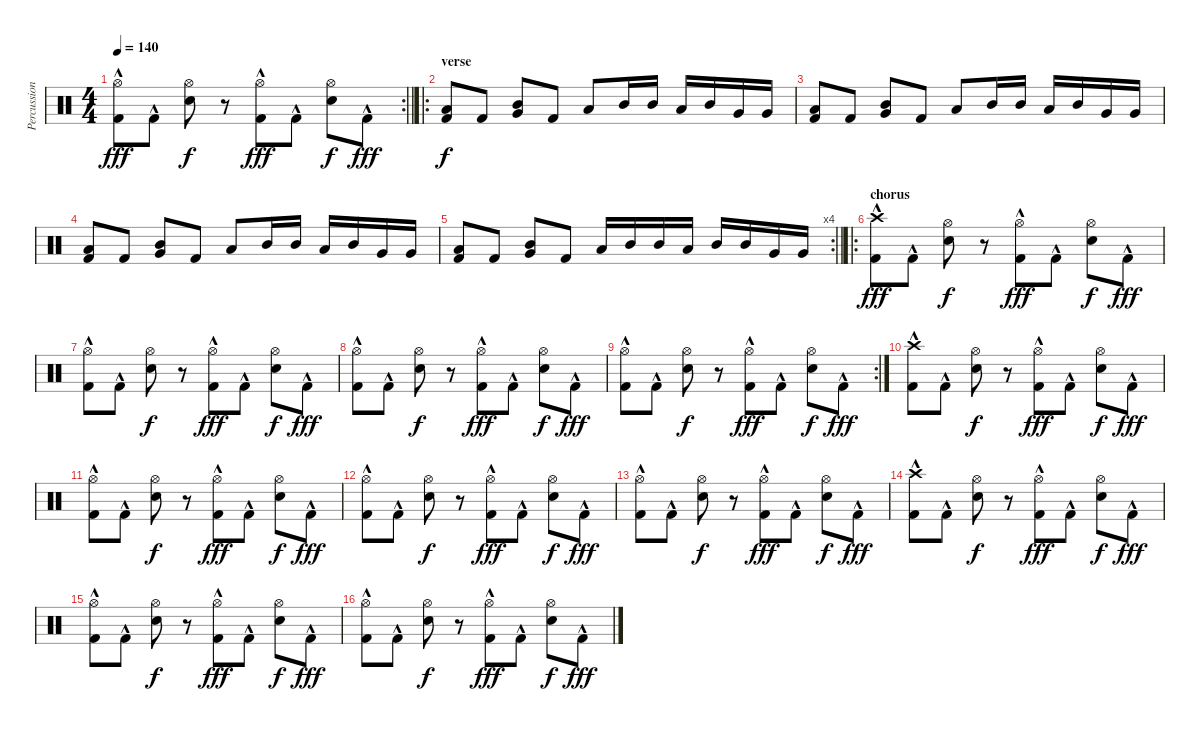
\track ("Percussion" "Percussion") {instrument percussion}
\staff {score}
\articulation defaults
\rc 2
\ts (4 4)
\tempo 140
\clef neutral
\barLineRight lightlight
\ks c
("Hi-Hat (open)" "Kick (hit) 2"{hac}).8{dy fff} "Kick (hit) 2"{hac}.8 ("Hi-Hat (open)" "Electric Snare (hit)").8{dy f} r.8 ("Hi-Hat (open)" "Kick (hit) 2"{hac}).8{dy fff} "Kick (hit) 2"{hac}.8 ("Hi-Hat (open)" "Electric Snare (hit)").8{dy f} "Kick (hit) 2"{hac}.8{dy fff} |
\ro
\section ("" "verse")
("Low Tom (hit)" "Kick (hit) 2").8{dy f} "Kick (hit) 2".8 ("Very Low Tom (hit)" "Mid Tom (hit)").8 "Kick (hit) 2".8 "Low Floor Tom (hit)".8 "Mid Tom (hit)".16 "Mid Tom (hit)".16 "Low Tom (hit)".16 "Mid Tom (hit)".16 "Very Low Tom (hit)".16 "Very Low Tom (hit)".16 |
("Low Tom (hit)" "Kick (hit) 2").8 "Kick (hit) 2".8 ("Very Low Tom (hit)" "Mid Tom (hit)").8 "Kick (hit) 2".8 "Low Floor Tom (hit)".8 "Mid Tom (hit)".16 "Mid Tom (hit)".16 "Low Tom (hit)".16 "Mid Tom (hit)".16 "Very Low Tom (hit)".16 "Very Low Tom (hit)".16 |
("Low Tom (hit)" "Kick (hit) 2").8 "Kick (hit) 2".8 ("Very Low Tom (hit)" "Mid Tom (hit)").8 "Kick (hit) 2".8 "Low Floor Tom (hit)".8 "Mid Tom (hit)".16 "Mid Tom (hit)".16 "Low Tom (hit)".16 "Mid Tom (hit)".16 "Very Low Tom (hit)".16 "Very Low Tom (hit)".16 |
\rc 4
\barLineRight lightlight
("Low Tom (hit)" "Kick (hit) 2").8 "Kick (hit) 2".8 ("Very Low Tom (hit)" "Mid Tom (hit)").8 "Kick (hit) 2".8 "Low Floor Tom (hit)".16 "Mid Tom (hit)".16 "Mid Tom (hit)".16 "Low Tom (hit)".16 "Mid Tom (hit)".16 "Mid Tom (hit)".16 "Very Low Tom (hit)".16 "Very Low Tom (hit)".16 |
\ro
\section ("" "chorus")
("Crash high (hit)" "Kick (hit) 2"{hac}).8{dy fff} "Kick (hit) 2"{hac}.8 ("Hi-Hat (open)" "Electric Snare (hit)").8{dy f} r.8 ("Hi-Hat (open)" "Kick (hit) 2"{hac}).8{dy fff} "Kick (hit) 2"{hac}.8 ("Hi-Hat (open)" "Electric Snare (hit)").8{dy f} "Kick (hit) 2"{hac}.8{dy fff} |
("Hi-Hat (open)" "Kick (hit) 2"{hac}).8 "Kick (hit) 2"{hac}.8 ("Hi-Hat (open)" "Electric Snare (hit)").8{dy f} r.8 ("Hi-Hat (open)" "Kick (hit) 2"{hac}).8{dy fff} "Kick (hit) 2"{hac}.8 ("Hi-Hat (open)" "Electric Snare (hit)").8{dy f} "Kick (hit) 2"{hac}.8{dy fff} |
("Hi-Hat (open)" "Kick (hit) 2"{hac}).8 "Kick (hit) 2"{hac}.8 ("Hi-Hat (open)" "Electric Snare (hit)").8{dy f} r.8 ("Hi-Hat (open)" "Kick (hit) 2"{hac}).8{dy fff} "Kick (hit) 2"{hac}.8 ("Hi-Hat (open)" "Electric Snare (hit)").8{dy f} "Kick (hit) 2"{hac}.8{dy fff} |
\rc 2
("Hi-Hat (open)" "Kick (hit) 2"{hac}).8 "Kick (hit) 2"{hac}.8 ("Hi-Hat (open)" "Electric Snare (hit)").8{dy f} r.8 ("Hi-Hat (open)" "Kick (hit) 2"{hac}).8{dy fff} "Kick (hit) 2"{hac}.8 ("Hi-Hat (open)" "Electric Snare (hit)").8{dy f} "Kick (hit) 2"{hac}.8{dy fff} |
("Crash high (hit)" "Kick (hit) 2"{hac}).8 "Kick (hit) 2"{hac}.8 ("Hi-Hat (open)" "Electric Snare (hit)").8{dy f} r.8 ("Hi-Hat (open)" "Kick (hit) 2"{hac}).8{dy fff} "Kick (hit) 2"{hac}.8 ("Hi-Hat (open)" "Electric Snare (hit)").8{dy f} "Kick (hit) 2"{hac}.8{dy fff} |
("Hi-Hat (open)" "Kick (hit) 2"{hac}).8 "Kick (hit) 2"{hac}.8 ("Hi-Hat (open)" "Electric Snare (hit)").8{dy f} r.8 ("Hi-Hat (open)" "Kick (hit) 2"{hac}).8{dy fff} "Kick (hit) 2"{hac}.8 ("Hi-Hat (open)" "Electric Snare (hit)").8{dy f} "Kick (hit) 2"{hac}.8{dy fff} |
("Hi-Hat (open)" "Kick (hit) 2"{hac}).8 "Kick (hit) 2"{hac}.8 ("Hi-Hat (open)" "Electric Snare (hit)").8{dy f} r.8 ("Hi-Hat (open)" "Kick (hit) 2"{hac}).8{dy fff} "Kick (hit) 2"{hac}.8 ("Hi-Hat (open)" "Electric Snare (hit)").8{dy f} "Kick (hit) 2"{hac}.8{dy fff} |
("Hi-Hat (open)" "Kick (hit) 2"{hac}).8 "Kick (hit) 2"{hac}.8 ("Hi-Hat (open)" "Electric Snare (hit)").8{dy f} r.8 ("Hi-Hat (open)" "Kick (hit) 2"{hac}).8{dy fff} "Kick (hit) 2"{hac}.8 ("Hi-Hat (open)" "Electric Snare (hit)").8{dy f} "Kick (hit) 2"{hac}.8{dy fff} |
("Crash high (hit)" "Kick (hit) 2"{hac}).8 "Kick (hit) 2"{hac}.8 ("Hi-Hat (open)" "Electric Snare (hit)").8{dy f} r.8 ("Hi-Hat (open)" "Kick (hit) 2"{hac}).8{dy fff} "Kick (hit) 2"{hac}.8 ("Hi-Hat (open)" "Electric Snare (hit)").8{dy f} "Kick (hit) 2"{hac}.8{dy fff} |
("Hi-Hat (open)" "Kick (hit) 2"{hac}).8 "Kick (hit) 2"{hac}.8 ("Hi-Hat (open)" "Electric Snare (hit)").8{dy f} r.8 ("Hi-Hat (open)" "Kick (hit) 2"{hac}).8{dy fff} "Kick (hit) 2"{hac}.8 ("Hi-Hat (open)" "Electric Snare (hit)").8{dy f} "Kick (hit) 2"{hac}.8{dy fff} |
("Hi-Hat (open)" "Kick (hit) 2"{hac}).8 "Kick (hit) 2"{hac}.8 ("Hi-Hat (open)" "Electric Snare (hit)").8{dy f} r.8 ("Hi-Hat (open)" "Kick (hit) 2"{hac}).8{dy fff} "Kick (hit) 2"{hac}.8 ("Hi-Hat (open)" "Electric Snare (hit)").8{dy f} "Kick (hit) 2"{hac}.8{dy fff}
